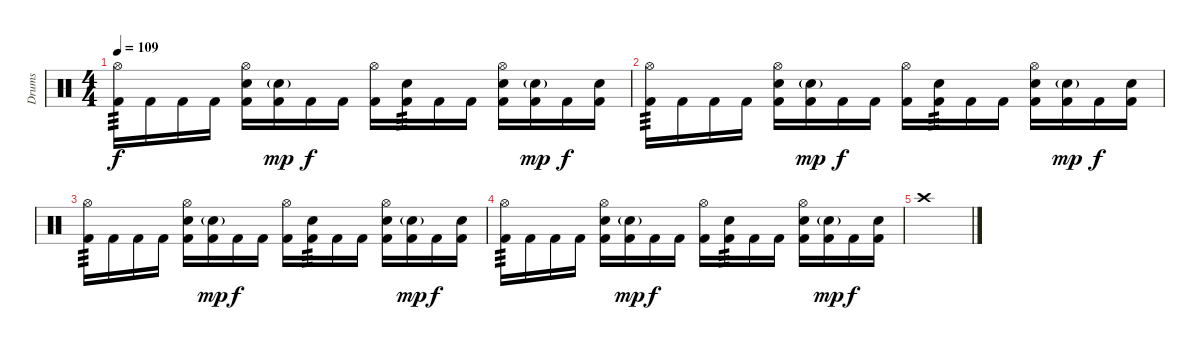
\track ("Drums" "Drums") {instrument percussion}
\staff {score}
\articulation defaults
\ts (4 4)
\tempo 109
\clef neutral
\ks c
("Hi-Hat (open)" "Kick (hit) 2").16{tp 3 dy f} "Kick (hit) 2".16 "Kick (hit) 2".16 "Kick (hit) 2".16 ("Hi-Hat (open)" "Electric Snare (hit)" "Kick (hit) 2").16 ("Electric Snare (hit)"{g} "Kick (hit) 2").16{dy mp} "Kick (hit) 2".16{dy f} "Kick (hit) 2".16 ("Hi-Hat (open)" "Kick (hit) 2").16 ("Electric Snare (hit)" "Kick (hit) 2").16{tp 3} "Kick (hit) 2".16 "Kick (hit) 2".16 ("Hi-Hat (open)" "Electric Snare (hit)" "Kick (hit) 2").16 ("Electric Snare (hit)"{g} "Kick (hit) 2").16{dy mp} "Kick (hit) 2".16{dy f} ("Electric Snare (hit)" "Kick (hit) 2").16 |
("Hi-Hat (open)" "Kick (hit) 2").16{tp 3} "Kick (hit) 2".16 "Kick (hit) 2".16 "Kick (hit) 2".16 ("Hi-Hat (open)" "Electric Snare (hit)" "Kick (hit) 2").16 ("Electric Snare (hit)"{g} "Kick (hit) 2").16{dy mp} "Kick (hit) 2".16{dy f} "Kick (hit) 2".16 ("Hi-Hat (open)" "Kick (hit) 2").16 ("Electric Snare (hit)" "Kick (hit) 2").16{tp 3} "Kick (hit) 2".16 "Kick (hit) 2".16 ("Hi-Hat (open)" "Electric Snare (hit)" "Kick (hit) 2").16 ("Electric Snare (hit)"{g} "Kick (hit) 2").16{dy mp} "Kick (hit) 2".16{dy f} ("Electric Snare (hit)" "Kick (hit) 2").16 |
("Hi-Hat (open)" "Kick (hit) 2").16{tp 3} "Kick (hit) 2".16 "Kick (hit) 2".16 "Kick (hit) 2".16 ("Hi-Hat (open)" "Electric Snare (hit)" "Kick (hit) 2").16 ("Electric Snare (hit)"{g} "Kick (hit) 2").16{dy mp} "Kick (hit) 2".16{dy f} "Kick (hit) 2".16 ("Hi-Hat (open)" "Kick (hit) 2").16 ("Electric Snare (hit)" "Kick (hit) 2").16{tp 3} "Kick (hit) 2".16 "Kick (hit) 2".16 ("Hi-Hat (open)" "Electric Snare (hit)" "Kick (hit) 2").16 ("Electric Snare (hit)"{g} "Kick (hit) 2").16{dy mp} "Kick (hit) 2".16{dy f} ("Electric Snare (hit)" "Kick (hit) 2").16 |
("Hi-Hat (open)" "Kick (hit) 2").16{tp 3} "Kick (hit) 2".16 "Kick (hit) 2".16 "Kick (hit) 2".16 ("Hi-Hat (open)" "Electric Snare (hit)" "Kick (hit) 2").16 ("Electric Snare (hit)"{g} "Kick (hit) 2").16{dy mp} "Kick (hit) 2".16{dy f} "Kick (hit) 2".16 ("Hi-Hat (open)" "Kick (hit) 2").16 ("Electric Snare (hit)" "Kick (hit) 2").16{tp 3} "Kick (hit) 2".16 "Kick (hit) 2".16 ("Hi-Hat (open)" "Electric Snare (hit)" "Kick (hit) 2").16 ("Electric Snare (hit)"{g} "Kick (hit) 2").16{dy mp} "Kick (hit) 2".16{dy f} ("Electric Snare (hit)" "Kick (hit) 2").16 |
"Crash high (hit)".1
